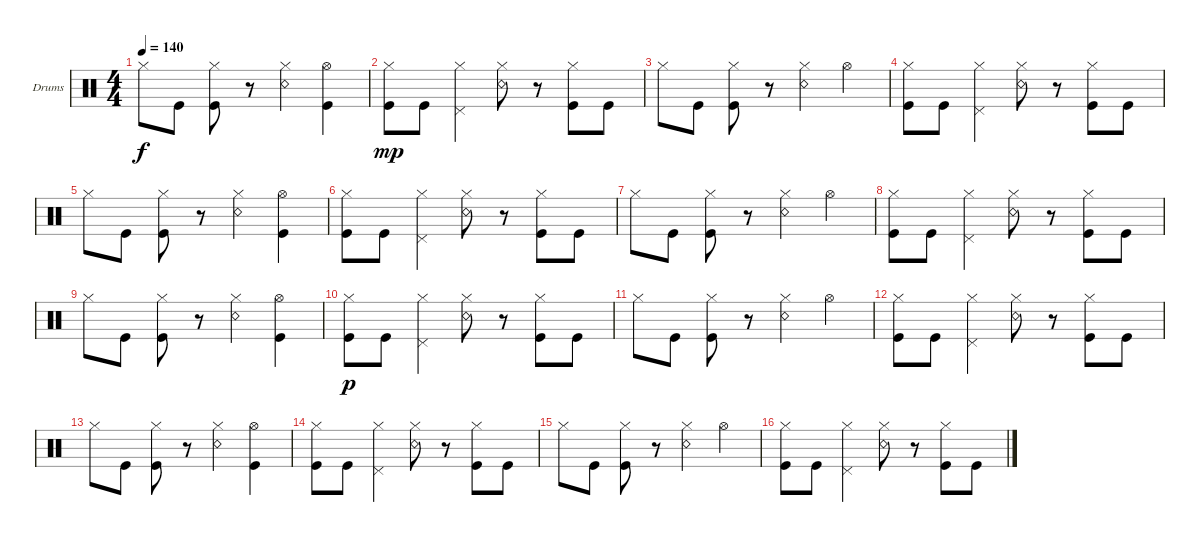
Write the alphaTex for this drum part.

\defaultSystemsLayout 4
\bracketExtendMode groupsimilarinstruments
\firstSystemTrackNameOrientation horizontal
\otherSystemsTrackNameOrientation horizontal
\track ("Drumkit" "Drums") {instrument percussion}
\staff {score}
\articulation defaults
\ts (4 4)
\tempo 140
\clef neutral
\scale
0.333333
\ks c "Hi-Hat (closed)".8{dy f} "Kick (hit)".8
("Kick (hit)" "Hi-Hat (closed)").8 r.8 ("Snare (rim shot)" "Hi-Hat (closed)").4 ("Hi-Hat (open)" "Kick (hit)").4 |
\scale
0.333333 ("Kick (hit)" "Hi-Hat (closed)").8{dy mp} "Kick (hit)".8 ("Pedal Hi-Hat (hit)" "Hi-Hat (closed)").4 ("Snare (rim shot)" "Hi-Hat (closed)").8 r.8 ("Kick (hit)" "Hi-Hat (closed)").8 "Kick (hit)".8 |
\scale
0.333333 "Hi-Hat (closed)".8 "Kick (hit)".8 ("Kick (hit)" "Hi-Hat (closed)").8 r.8 ("Snare (rim shot)" "Hi-Hat (closed)").4 "Hi-Hat (open)".4 |
\scale
0.333333 ("Kick (hit)" "Hi-Hat (closed)").8 "Kick (hit)".8 ("Pedal Hi-Hat (hit)" "Hi-Hat (closed)").4 ("Snare (rim shot)" "Hi-Hat (closed)").8 r.8 ("Kick (hit)" "Hi-Hat (closed)").8 "Kick (hit)".8 |
\scale
0.333333 "Hi-Hat (closed)".8 "Kick (hit)".8 ("Kick (hit)" "Hi-Hat (closed)").8 r.8 ("Snare (rim shot)" "Hi-Hat (closed)").4 ("Hi-Hat (open)" "Kick (hit)").4 |
\scale
0.333333 ("Kick (hit)" "Hi-Hat (closed)").8 "Kick (hit)".8 ("Pedal Hi-Hat (hit)" "Hi-Hat (closed)").4 ("Snare (rim shot)" "Hi-Hat (closed)").8 r.8 ("Kick (hit)" "Hi-Hat (closed)").8 "Kick (hit)".8 |
\scale
0.333333 "Hi-Hat (closed)".8 "Kick (hit)".8 ("Kick (hit)" "Hi-Hat (closed)").8 r.8 ("Snare (rim shot)" "Hi-Hat (closed)").4 "Hi-Hat (open)".4 |
\scale
0.333333 ("Kick (hit)" "Hi-Hat (closed)").8 "Kick (hit)".8 ("Pedal Hi-Hat (hit)" "Hi-Hat (closed)").4 ("Snare (rim shot)" "Hi-Hat (closed)").8 r.8 ("Kick (hit)" "Hi-Hat (closed)").8 "Kick (hit)".8 |
\scale
0.333333 "Hi-Hat (closed)".8 "Kick (hit)".8 ("Kick (hit)" "Hi-Hat (closed)").8 r.8 ("Snare (rim shot)" "Hi-Hat (closed)").4 ("Hi-Hat (open)" "Kick (hit)").4 |
\scale
0.333333 ("Kick (hit)" "Hi-Hat (closed)").8{dy p} "Kick (hit)".8 ("Pedal Hi-Hat (hit)" "Hi-Hat (closed)").4 ("Snare (rim shot)" "Hi-Hat (closed)").8 r.8 ("Kick (hit)" "Hi-Hat (closed)").8 "Kick (hit)".8 |
\scale
0.333333 "Hi-Hat (closed)".8 "Kick (hit)".8 ("Kick (hit)" "Hi-Hat (closed)").8 r.8 ("Snare (rim shot)" "Hi-Hat (closed)").4 "Hi-Hat (open)".4 |
\scale
0.333333 ("Kick (hit)" "Hi-Hat (closed)").8 "Kick (hit)".8 ("Pedal Hi-Hat (hit)" "Hi-Hat (closed)").4 ("Snare (rim shot)" "Hi-Hat (closed)").8 r.8 ("Kick (hit)" "Hi-Hat (closed)").8 "Kick (hit)".8 |
\scale
0.333333 "Hi-Hat (closed)".8 "Kick (hit)".8 ("Kick (hit)" "Hi-Hat (closed)").8 r.8 ("Snare (rim shot)" "Hi-Hat (closed)").4 ("Hi-Hat (open)" "Kick (hit)").4 |
\scale
0.333333 ("Kick (hit)" "Hi-Hat (closed)").8 "Kick (hit)".8 ("Pedal Hi-Hat (hit)" "Hi-Hat (closed)").4 ("Snare (rim shot)" "Hi-Hat (closed)").8 r.8 ("Kick (hit)" "Hi-Hat (closed)").8 "Kick (hit)".8 |
\scale
0.333333 "Hi-Hat (closed)".8 "Kick (hit)".8 ("Kick (hit)" "Hi-Hat (closed)").8 r.8 ("Snare (rim shot)" "Hi-Hat (closed)").4 "Hi-Hat (open)".4 |
\scale
0.333333 ("Kick (hit)" "Hi-Hat (closed)").8 "Kick (hit)".8 ("Pedal Hi-Hat (hit)" "Hi-Hat (closed)").4 ("Snare (rim shot)" "Hi-Hat (closed)").8 r.8 ("Kick (hit)" "Hi-Hat (closed)").8 "Kick (hit)".8
